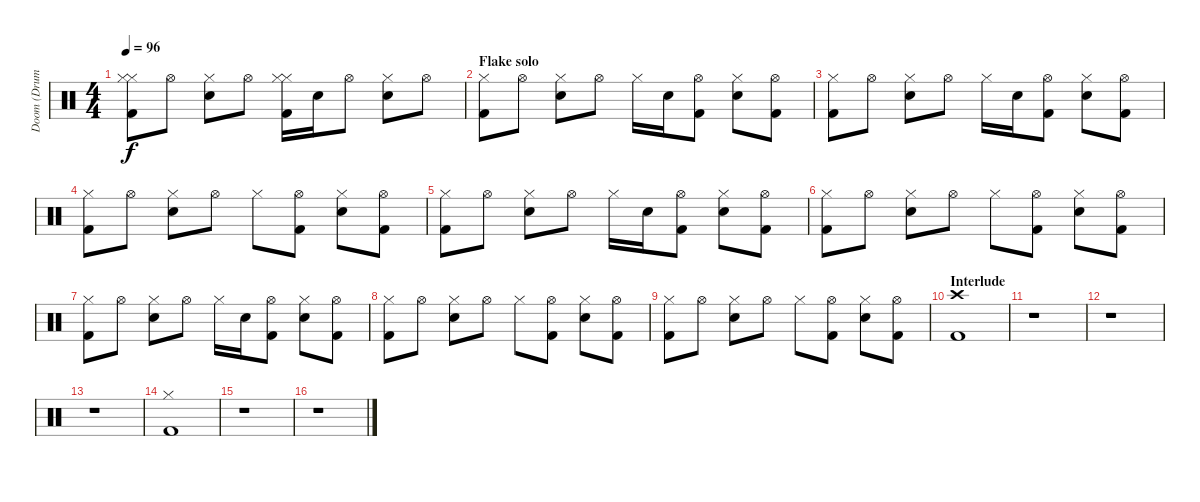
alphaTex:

\track ("Doom (Drums)" "Doom (Drum") {instrument percussion}
\staff {score}
\articulation defaults
\ts (4 4)
\tempo 96
\clef neutral
\ks c
("Hi-Hat (closed)" "Hi-Hat (closed)" "Kick (hit) 2").8{dy f} "Hi-Hat (open)".8 ("Hi-Hat (closed)" "Electric Snare (hit)").8 "Hi-Hat (open)".8 ("Hi-Hat (closed)" "Hi-Hat (closed)" "Kick (hit) 2").16 "Electric Snare (hit)".16 "Hi-Hat (open)".8 ("Hi-Hat (closed)" "Electric Snare (hit)").8 "Hi-Hat (open)".8 |
\section ("" "Flake solo")
("Hi-Hat (closed)" "Kick (hit) 2").8 "Hi-Hat (open)".8 ("Hi-Hat (closed)" "Electric Snare (hit)").8 "Hi-Hat (open)".8 "Hi-Hat (closed)".16 "Electric Snare (hit)".16 ("Hi-Hat (open)" "Kick (hit) 2").8 ("Hi-Hat (closed)" "Electric Snare (hit)").8 ("Hi-Hat (open)" "Kick (hit) 2").8 |
("Hi-Hat (closed)" "Kick (hit) 2").8 "Hi-Hat (open)".8 ("Hi-Hat (closed)" "Electric Snare (hit)").8 "Hi-Hat (open)".8 "Hi-Hat (closed)".16 "Electric Snare (hit)".16 ("Hi-Hat (open)" "Kick (hit) 2").8 ("Hi-Hat (closed)" "Electric Snare (hit)").8 ("Hi-Hat (open)" "Kick (hit) 2").8 |
("Hi-Hat (closed)" "Kick (hit) 2").8 "Hi-Hat (open)".8 ("Hi-Hat (closed)" "Electric Snare (hit)").8 "Hi-Hat (open)".8 "Hi-Hat (closed)".8 ("Hi-Hat (open)" "Kick (hit) 2").8 ("Hi-Hat (closed)" "Electric Snare (hit)").8 ("Hi-Hat (open)" "Kick (hit) 2").8 |
("Hi-Hat (closed)" "Kick (hit) 2").8 "Hi-Hat (open)".8 ("Hi-Hat (closed)" "Electric Snare (hit)").8 "Hi-Hat (open)".8 "Hi-Hat (closed)".16 "Electric Snare (hit)".16 ("Hi-Hat (open)" "Kick (hit) 2").8 ("Hi-Hat (closed)" "Electric Snare (hit)").8 ("Hi-Hat (open)" "Kick (hit) 2").8 |
("Hi-Hat (closed)" "Kick (hit) 2").8 "Hi-Hat (open)".8 ("Hi-Hat (closed)" "Electric Snare (hit)").8 "Hi-Hat (open)".8 "Hi-Hat (closed)".8 ("Hi-Hat (open)" "Kick (hit) 2").8 ("Hi-Hat (closed)" "Electric Snare (hit)").8 ("Hi-Hat (open)" "Kick (hit) 2").8 |
("Hi-Hat (closed)" "Kick (hit) 2").8 "Hi-Hat (open)".8 ("Hi-Hat (closed)" "Electric Snare (hit)").8 "Hi-Hat (open)".8 "Hi-Hat (closed)".16 "Electric Snare (hit)".16 ("Hi-Hat (open)" "Kick (hit) 2").8 ("Hi-Hat (closed)" "Electric Snare (hit)").8 ("Hi-Hat (open)" "Kick (hit) 2").8 |
("Hi-Hat (closed)" "Kick (hit) 2").8 "Hi-Hat (open)".8 ("Hi-Hat (closed)" "Electric Snare (hit)").8 "Hi-Hat (open)".8 "Hi-Hat (closed)".8 ("Hi-Hat (open)" "Kick (hit) 2").8 ("Hi-Hat (closed)" "Electric Snare (hit)").8 ("Hi-Hat (open)" "Kick (hit) 2").8 |
("Hi-Hat (closed)" "Kick (hit) 2").8 "Hi-Hat (open)".8 ("Hi-Hat (closed)" "Electric Snare (hit)").8 "Hi-Hat (open)".8 "Hi-Hat (closed)".8 ("Hi-Hat (open)" "Kick (hit) 2").8 ("Hi-Hat (closed)" "Electric Snare (hit)").8 ("Hi-Hat (open)" "Kick (hit) 2").8 |
\section ("" "Interlude")
("Crash high (hit)" "Kick (hit) 2").1 |
r.1 |
r.1 |
r.1 |
("Hi-Hat (closed)" "Kick (hit) 2").1 |
r.1 |
r.1
